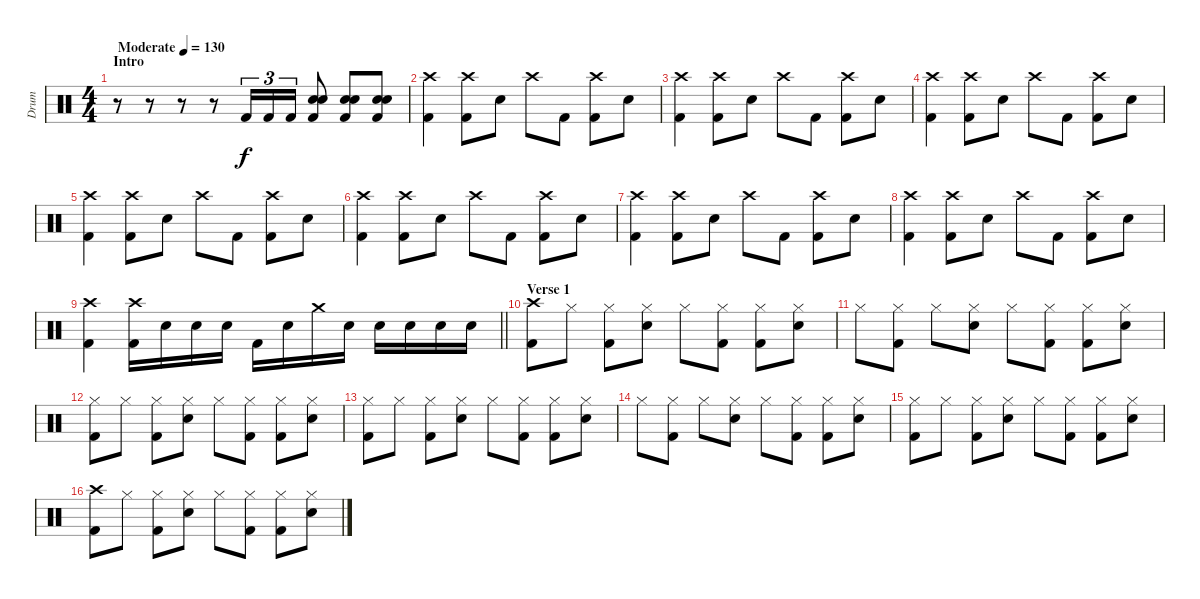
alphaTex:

\track ("Drum" "Drum") {instrument percussion}
\staff {score}
\articulation defaults
\ts (4 4)
\section ("" "Intro")
\tempo (130 "Moderate")
\clef neutral
\ks c
r.8{dy f} r.8 r.8 r.8 "Kick (hit) 2".16{tu (3 2)} "Kick (hit) 2".16{tu (3 2)} "Kick (hit) 2".16{tu (3 2)} ("Electric Snare (hit)" "Electric Snare (hit)" "Kick (hit) 2").8 ("Electric Snare (hit)" "Electric Snare (hit)" "Kick (hit) 2").8 ("Electric Snare (hit)" "Electric Snare (hit)" "Kick (hit) 2").8 |
("Crash high (hit)" "Kick (hit) 2").4 ("Crash high (hit)" "Kick (hit) 2").8 "Electric Snare (hit)".8 "Crash high (hit)".8 "Kick (hit) 2".8 ("Crash high (hit)" "Kick (hit) 2").8 "Electric Snare (hit)".8 |
("Crash high (hit)" "Kick (hit) 2").4 ("Crash high (hit)" "Kick (hit) 2").8 "Electric Snare (hit)".8 "Crash high (hit)".8 "Kick (hit) 2".8 ("Crash high (hit)" "Kick (hit) 2").8 "Electric Snare (hit)".8 |
("Crash high (hit)" "Kick (hit) 2").4 ("Crash high (hit)" "Kick (hit) 2").8 "Electric Snare (hit)".8 "Crash high (hit)".8 "Kick (hit) 2".8 ("Crash high (hit)" "Kick (hit) 2").8 "Electric Snare (hit)".8 |
("Crash high (hit)" "Kick (hit) 2").4 ("Crash high (hit)" "Kick (hit) 2").8 "Electric Snare (hit)".8 "Crash high (hit)".8 "Kick (hit) 2".8 ("Crash high (hit)" "Kick (hit) 2").8 "Electric Snare (hit)".8 |
("Crash high (hit)" "Kick (hit) 2").4 ("Crash high (hit)" "Kick (hit) 2").8 "Electric Snare (hit)".8 "Crash high (hit)".8 "Kick (hit) 2".8 ("Crash high (hit)" "Kick (hit) 2").8 "Electric Snare (hit)".8 |
("Crash high (hit)" "Kick (hit) 2").4 ("Crash high (hit)" "Kick (hit) 2").8 "Electric Snare (hit)".8 "Crash high (hit)".8 "Kick (hit) 2".8 ("Crash high (hit)" "Kick (hit) 2").8 "Electric Snare (hit)".8 |
("Crash high (hit)" "Kick (hit) 2").4 ("Crash high (hit)" "Kick (hit) 2").8 "Electric Snare (hit)".8 "Crash high (hit)".8 "Kick (hit) 2".8 ("Crash high (hit)" "Kick (hit) 2").8 "Electric Snare (hit)".8 |
\barLineRight lightlight
("Crash high (hit)" "Kick (hit) 2").4 ("Crash high (hit)" "Kick (hit) 2").16 "Electric Snare (hit)".16 "Electric Snare (hit)".16 "Electric Snare (hit)".16 "Kick (hit) 2".16 "Electric Snare (hit)".16 "Crash medium (hit)".16 "Electric Snare (hit)".16 "Electric Snare (hit)".16 "Electric Snare (hit)".16 "Electric Snare (hit)".16 "Electric Snare (hit)".16 |
\section ("" "Verse 1")
("Crash high (hit)" "Kick (hit) 2").8 "Hi-Hat (closed)".8 ("Hi-Hat (closed)" "Kick (hit) 2").8 ("Hi-Hat (closed)" "Electric Snare (hit)").8 "Hi-Hat (closed)".8 ("Hi-Hat (closed)" "Kick (hit) 2").8 ("Hi-Hat (closed)" "Kick (hit) 2").8 ("Hi-Hat (closed)" "Electric Snare (hit)").8 |
"Hi-Hat (closed)".8 ("Hi-Hat (closed)" "Kick (hit) 2").8 "Hi-Hat (closed)".8 ("Hi-Hat (closed)" "Electric Snare (hit)").8 "Hi-Hat (closed)".8 ("Hi-Hat (closed)" "Kick (hit) 2").8 ("Hi-Hat (closed)" "Kick (hit) 2").8 ("Hi-Hat (closed)" "Electric Snare (hit)").8 |
("Hi-Hat (closed)" "Kick (hit) 2").8 "Hi-Hat (closed)".8 ("Hi-Hat (closed)" "Kick (hit) 2").8 ("Hi-Hat (closed)" "Electric Snare (hit)").8 "Hi-Hat (closed)".8 ("Hi-Hat (closed)" "Kick (hit) 2").8 ("Hi-Hat (closed)" "Kick (hit) 2").8 ("Hi-Hat (closed)" "Electric Snare (hit)").8 |
("Hi-Hat (closed)" "Kick (hit) 2").8 "Hi-Hat (closed)".8 ("Hi-Hat (closed)" "Kick (hit) 2").8 ("Hi-Hat (closed)" "Electric Snare (hit)").8 "Hi-Hat (closed)".8 ("Hi-Hat (closed)" "Kick (hit) 2").8 ("Hi-Hat (closed)" "Kick (hit) 2").8 ("Hi-Hat (closed)" "Electric Snare (hit)").8 |
"Hi-Hat (closed)".8 ("Hi-Hat (closed)" "Kick (hit) 2").8 "Hi-Hat (closed)".8 ("Hi-Hat (closed)" "Electric Snare (hit)").8 "Hi-Hat (closed)".8 ("Hi-Hat (closed)" "Kick (hit) 2").8 ("Hi-Hat (closed)" "Kick (hit) 2").8 ("Hi-Hat (closed)" "Electric Snare (hit)").8 |
("Hi-Hat (closed)" "Kick (hit) 2").8 "Hi-Hat (closed)".8 ("Hi-Hat (closed)" "Kick (hit) 2").8 ("Hi-Hat (closed)" "Electric Snare (hit)").8 "Hi-Hat (closed)".8 ("Hi-Hat (closed)" "Kick (hit) 2").8 ("Hi-Hat (closed)" "Kick (hit) 2").8 ("Hi-Hat (closed)" "Electric Snare (hit)").8 |
("Crash high (hit)" "Kick (hit) 2").8 "Hi-Hat (closed)".8 ("Hi-Hat (closed)" "Kick (hit) 2").8 ("Hi-Hat (closed)" "Electric Snare (hit)").8 "Hi-Hat (closed)".8 ("Hi-Hat (closed)" "Kick (hit) 2").8 ("Hi-Hat (closed)" "Kick (hit) 2").8 ("Hi-Hat (closed)" "Electric Snare (hit)").8
